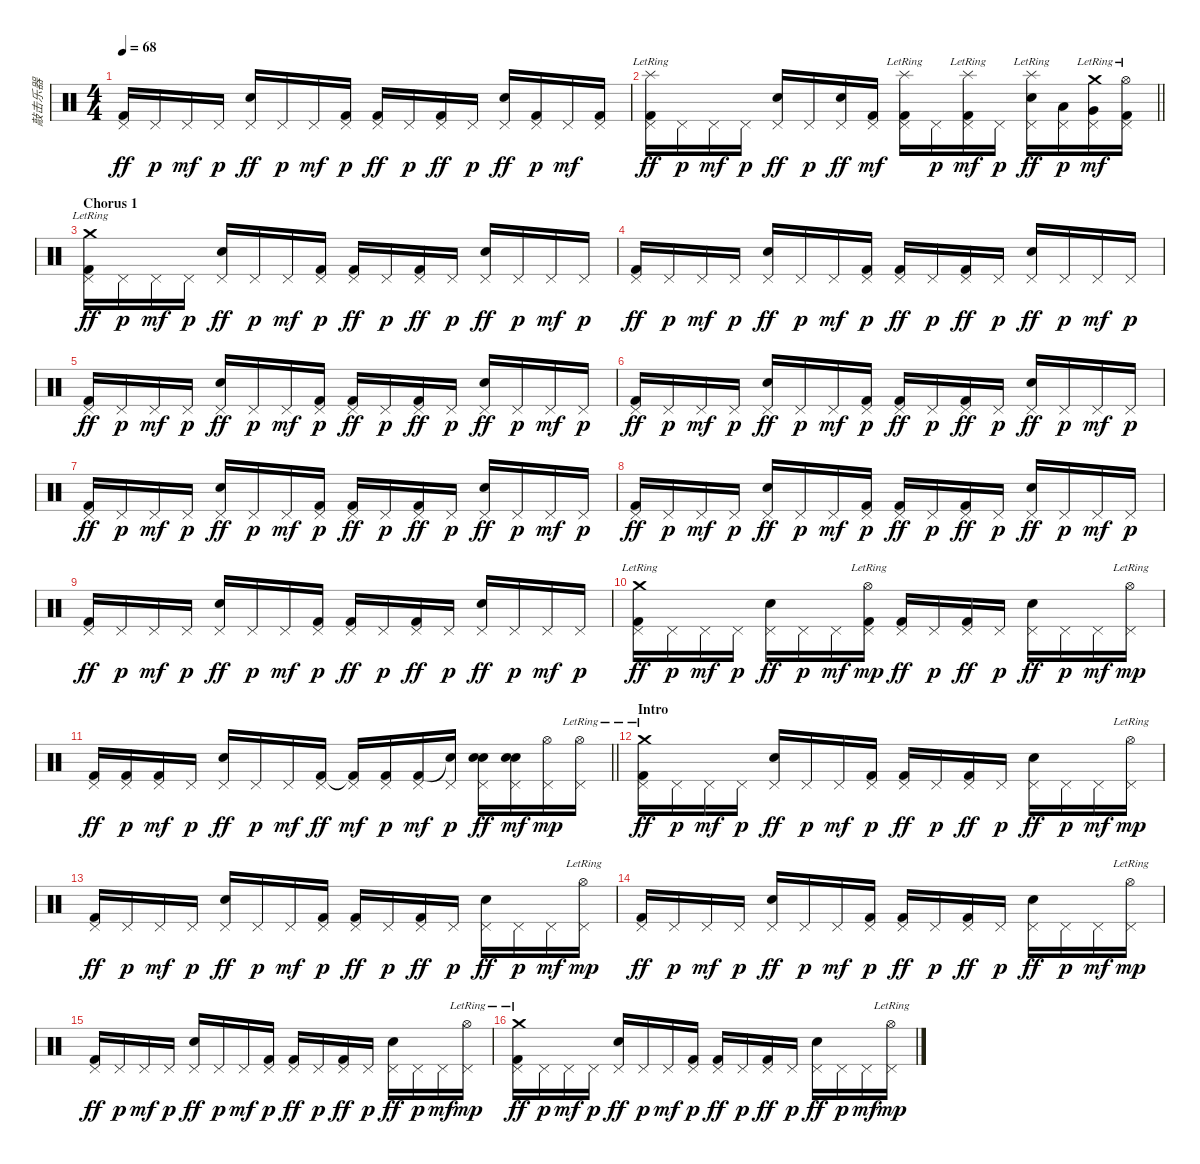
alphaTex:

\track ("敲击乐器" "敲击乐器") {instrument percussion}
\staff {score}
\articulation defaults
\ts (4 4)
\tempo 68
\clef neutral
\ks c
("Pedal Hi-Hat (hit)" "Kick (hit) 2").16{dy ff} "Pedal Hi-Hat (hit)".16{dy p} "Pedal Hi-Hat (hit)".16{dy mf} "Pedal Hi-Hat (hit)".16{dy p} ("Pedal Hi-Hat (hit)" "Electric Snare (hit)").16{dy ff} "Pedal Hi-Hat (hit)".16{dy p} "Pedal Hi-Hat (hit)".16{dy mf} ("Pedal Hi-Hat (hit)" "Kick (hit) 2").16{dy p} ("Pedal Hi-Hat (hit)" "Kick (hit) 2").16{dy ff} "Pedal Hi-Hat (hit)".16{dy p} ("Pedal Hi-Hat (hit)" "Kick (hit) 2").16{dy ff} "Pedal Hi-Hat (hit)".16{dy p} ("Pedal Hi-Hat (hit)" "Electric Snare (hit)").16{dy ff} ("Pedal Hi-Hat (hit)" "Kick (hit) 2").16{dy p} "Pedal Hi-Hat (hit)".16{dy mf} ("Pedal Hi-Hat (hit)" "Kick (hit) 2").16 |
\barLineRight lightlight
("Pedal Hi-Hat (hit)" "Splash (hit)"{lr} "Kick (hit) 2").16{dy ff} "Pedal Hi-Hat (hit)".16{dy p} "Pedal Hi-Hat (hit)".16{dy mf} "Pedal Hi-Hat (hit)".16{dy p} ("Pedal Hi-Hat (hit)" "Electric Snare (hit)").16{dy ff} "Pedal Hi-Hat (hit)".16{dy p} ("Pedal Hi-Hat (hit)" "Electric Snare (hit)").16{dy ff} ("Pedal Hi-Hat (hit)" "Kick (hit) 2").16{dy mf} ("Pedal Hi-Hat (hit)" "Splash (hit)"{lr} "Kick (hit) 2").16 "Pedal Hi-Hat (hit)".16{dy p} ("Pedal Hi-Hat (hit)" "Splash (hit)"{lr} "Kick (hit) 2").16{dy mf} "Pedal Hi-Hat (hit)".16{dy p} ("Pedal Hi-Hat (hit)" "Splash (hit)"{lr} "Electric Snare (hit)").16{dy ff} ("Pedal Hi-Hat (hit)" "Low Tom (hit)").16{dy p} ("Pedal Hi-Hat (hit)" "Crash medium (hit)"{lr} "Very Low Tom (hit)").16{dy mf} ("Pedal Hi-Hat (hit)" "Hi-Hat (open)"{lr} "Kick (hit) 2").16 |
\section ("" "Chorus 1")
("Pedal Hi-Hat (hit)" "Crash medium (hit)"{lr} "Kick (hit) 2").16{dy ff} "Pedal Hi-Hat (hit)".16{dy p} "Pedal Hi-Hat (hit)".16{dy mf} "Pedal Hi-Hat (hit)".16{dy p} ("Pedal Hi-Hat (hit)" "Electric Snare (hit)").16{dy ff} "Pedal Hi-Hat (hit)".16{dy p} "Pedal Hi-Hat (hit)".16{dy mf} ("Pedal Hi-Hat (hit)" "Kick (hit) 2").16{dy p} ("Pedal Hi-Hat (hit)" "Kick (hit) 2").16{dy ff} "Pedal Hi-Hat (hit)".16{dy p} ("Pedal Hi-Hat (hit)" "Kick (hit) 2").16{dy ff} "Pedal Hi-Hat (hit)".16{dy p} ("Pedal Hi-Hat (hit)" "Electric Snare (hit)").16{dy ff} "Pedal Hi-Hat (hit)".16{dy p} "Pedal Hi-Hat (hit)".16{dy mf} "Pedal Hi-Hat (hit)".16{dy p} |
("Pedal Hi-Hat (hit)" "Kick (hit) 2").16{dy ff} "Pedal Hi-Hat (hit)".16{dy p} "Pedal Hi-Hat (hit)".16{dy mf} "Pedal Hi-Hat (hit)".16{dy p} ("Pedal Hi-Hat (hit)" "Electric Snare (hit)").16{dy ff} "Pedal Hi-Hat (hit)".16{dy p} "Pedal Hi-Hat (hit)".16{dy mf} ("Pedal Hi-Hat (hit)" "Kick (hit) 2").16{dy p} ("Pedal Hi-Hat (hit)" "Kick (hit) 2").16{dy ff} "Pedal Hi-Hat (hit)".16{dy p} ("Pedal Hi-Hat (hit)" "Kick (hit) 2").16{dy ff} "Pedal Hi-Hat (hit)".16{dy p} ("Pedal Hi-Hat (hit)" "Electric Snare (hit)").16{dy ff} "Pedal Hi-Hat (hit)".16{dy p} "Pedal Hi-Hat (hit)".16{dy mf} "Pedal Hi-Hat (hit)".16{dy p} |
("Pedal Hi-Hat (hit)" "Kick (hit) 2").16{dy ff} "Pedal Hi-Hat (hit)".16{dy p} "Pedal Hi-Hat (hit)".16{dy mf} "Pedal Hi-Hat (hit)".16{dy p} ("Pedal Hi-Hat (hit)" "Electric Snare (hit)").16{dy ff} "Pedal Hi-Hat (hit)".16{dy p} "Pedal Hi-Hat (hit)".16{dy mf} ("Pedal Hi-Hat (hit)" "Kick (hit) 2").16{dy p} ("Pedal Hi-Hat (hit)" "Kick (hit) 2").16{dy ff} "Pedal Hi-Hat (hit)".16{dy p} ("Pedal Hi-Hat (hit)" "Kick (hit) 2").16{dy ff} "Pedal Hi-Hat (hit)".16{dy p} ("Pedal Hi-Hat (hit)" "Electric Snare (hit)").16{dy ff} "Pedal Hi-Hat (hit)".16{dy p} "Pedal Hi-Hat (hit)".16{dy mf} "Pedal Hi-Hat (hit)".16{dy p} |
("Pedal Hi-Hat (hit)" "Kick (hit) 2").16{dy ff} "Pedal Hi-Hat (hit)".16{dy p} "Pedal Hi-Hat (hit)".16{dy mf} "Pedal Hi-Hat (hit)".16{dy p} ("Pedal Hi-Hat (hit)" "Electric Snare (hit)").16{dy ff} "Pedal Hi-Hat (hit)".16{dy p} "Pedal Hi-Hat (hit)".16{dy mf} ("Pedal Hi-Hat (hit)" "Kick (hit) 2").16{dy p} ("Pedal Hi-Hat (hit)" "Kick (hit) 2").16{dy ff} "Pedal Hi-Hat (hit)".16{dy p} ("Pedal Hi-Hat (hit)" "Kick (hit) 2").16{dy ff} "Pedal Hi-Hat (hit)".16{dy p} ("Pedal Hi-Hat (hit)" "Electric Snare (hit)").16{dy ff} "Pedal Hi-Hat (hit)".16{dy p} "Pedal Hi-Hat (hit)".16{dy mf} "Pedal Hi-Hat (hit)".16{dy p} |
("Pedal Hi-Hat (hit)" "Kick (hit) 2").16{dy ff} "Pedal Hi-Hat (hit)".16{dy p} "Pedal Hi-Hat (hit)".16{dy mf} "Pedal Hi-Hat (hit)".16{dy p} ("Pedal Hi-Hat (hit)" "Electric Snare (hit)").16{dy ff} "Pedal Hi-Hat (hit)".16{dy p} "Pedal Hi-Hat (hit)".16{dy mf} ("Pedal Hi-Hat (hit)" "Kick (hit) 2").16{dy p} ("Pedal Hi-Hat (hit)" "Kick (hit) 2").16{dy ff} "Pedal Hi-Hat (hit)".16{dy p} ("Pedal Hi-Hat (hit)" "Kick (hit) 2").16{dy ff} "Pedal Hi-Hat (hit)".16{dy p} ("Pedal Hi-Hat (hit)" "Electric Snare (hit)").16{dy ff} "Pedal Hi-Hat (hit)".16{dy p} "Pedal Hi-Hat (hit)".16{dy mf} "Pedal Hi-Hat (hit)".16{dy p} |
("Pedal Hi-Hat (hit)" "Kick (hit) 2").16{dy ff} "Pedal Hi-Hat (hit)".16{dy p} "Pedal Hi-Hat (hit)".16{dy mf} "Pedal Hi-Hat (hit)".16{dy p} ("Pedal Hi-Hat (hit)" "Electric Snare (hit)").16{dy ff} "Pedal Hi-Hat (hit)".16{dy p} "Pedal Hi-Hat (hit)".16{dy mf} ("Pedal Hi-Hat (hit)" "Kick (hit) 2").16{dy p} ("Pedal Hi-Hat (hit)" "Kick (hit) 2").16{dy ff} "Pedal Hi-Hat (hit)".16{dy p} ("Pedal Hi-Hat (hit)" "Kick (hit) 2").16{dy ff} "Pedal Hi-Hat (hit)".16{dy p} ("Pedal Hi-Hat (hit)" "Electric Snare (hit)").16{dy ff} "Pedal Hi-Hat (hit)".16{dy p} "Pedal Hi-Hat (hit)".16{dy mf} "Pedal Hi-Hat (hit)".16{dy p} |
("Pedal Hi-Hat (hit)" "Kick (hit) 2").16{dy ff} "Pedal Hi-Hat (hit)".16{dy p} "Pedal Hi-Hat (hit)".16{dy mf} "Pedal Hi-Hat (hit)".16{dy p} ("Pedal Hi-Hat (hit)" "Electric Snare (hit)").16{dy ff} "Pedal Hi-Hat (hit)".16{dy p} "Pedal Hi-Hat (hit)".16{dy mf} ("Pedal Hi-Hat (hit)" "Kick (hit) 2").16{dy p} ("Pedal Hi-Hat (hit)" "Kick (hit) 2").16{dy ff} "Pedal Hi-Hat (hit)".16{dy p} ("Pedal Hi-Hat (hit)" "Kick (hit) 2").16{dy ff} "Pedal Hi-Hat (hit)".16{dy p} ("Pedal Hi-Hat (hit)" "Electric Snare (hit)").16{dy ff} "Pedal Hi-Hat (hit)".16{dy p} "Pedal Hi-Hat (hit)".16{dy mf} "Pedal Hi-Hat (hit)".16{dy p} |
("Pedal Hi-Hat (hit)" "Crash medium (hit)"{lr} "Kick (hit) 2").16{dy ff} "Pedal Hi-Hat (hit)".16{dy p} "Pedal Hi-Hat (hit)".16{dy mf} "Pedal Hi-Hat (hit)".16{dy p} ("Pedal Hi-Hat (hit)" "Electric Snare (hit)").16{dy ff} "Pedal Hi-Hat (hit)".16{dy p} "Pedal Hi-Hat (hit)".16{dy mf} ("Pedal Hi-Hat (hit)" "Hi-Hat (open)"{lr} "Kick (hit) 2").16{dy mp} ("Pedal Hi-Hat (hit)" "Kick (hit) 2").16{dy ff} "Pedal Hi-Hat (hit)".16{dy p} ("Pedal Hi-Hat (hit)" "Kick (hit) 2").16{dy ff} "Pedal Hi-Hat (hit)".16{dy p} ("Pedal Hi-Hat (hit)" "Electric Snare (hit)").16{dy ff} "Pedal Hi-Hat (hit)".16{dy p} "Pedal Hi-Hat (hit)".16{dy mf} ("Pedal Hi-Hat (hit)" "Hi-Hat (open)"{lr}).16{dy mp} |
\barLineRight lightlight
("Pedal Hi-Hat (hit)" "Kick (hit) 2").16{dy ff} ("Pedal Hi-Hat (hit)" "Kick (hit) 2").16{dy p} ("Pedal Hi-Hat (hit)" "Kick (hit) 2").16{dy mf} "Pedal Hi-Hat (hit)".16{dy p} ("Pedal Hi-Hat (hit)" "Electric Snare (hit)").16{dy ff} "Pedal Hi-Hat (hit)".16{dy p} "Pedal Hi-Hat (hit)".16{dy mf} ("Pedal Hi-Hat (hit)" "Kick (hit) 2").16{dy ff} ("Pedal Hi-Hat (hit)" "Kick (hit) 2"{t}).16{dy mf} ("Pedal Hi-Hat (hit)" "Kick (hit) 2").16{dy p} ("Pedal Hi-Hat (hit)" "Kick (hit) 2").16{dy mf} ("Pedal Hi-Hat (hit)" "Snare (hit)"{t}).16{dy p} ("Pedal Hi-Hat (hit)" "Electric Snare (hit)" "Electric Snare (hit)").16{bd 480 dy ff} ("Pedal Hi-Hat (hit)" "Electric Snare (hit)" "Electric Snare (hit)").16{bd 480 dy mf} ("Pedal Hi-Hat (hit)" "Hi-Hat (open)").16{dy mp} ("Pedal Hi-Hat (hit)" "Hi-Hat (open)"{lr}).16 |
\section ("" "Intro")
("Pedal Hi-Hat (hit)" "Crash medium (hit)"{lr} "Kick (hit) 2").16{dy ff} "Pedal Hi-Hat (hit)".16{dy p} "Pedal Hi-Hat (hit)".16{dy mf} "Pedal Hi-Hat (hit)".16{dy p} ("Pedal Hi-Hat (hit)" "Electric Snare (hit)").16{dy ff} "Pedal Hi-Hat (hit)".16{dy p} "Pedal Hi-Hat (hit)".16{dy mf} ("Pedal Hi-Hat (hit)" "Kick (hit) 2").16{dy p} ("Pedal Hi-Hat (hit)" "Kick (hit) 2").16{dy ff} "Pedal Hi-Hat (hit)".16{dy p} ("Pedal Hi-Hat (hit)" "Kick (hit) 2").16{dy ff} "Pedal Hi-Hat (hit)".16{dy p} ("Pedal Hi-Hat (hit)" "Electric Snare (hit)").16{dy ff} "Pedal Hi-Hat (hit)".16{dy p} "Pedal Hi-Hat (hit)".16{dy mf} ("Pedal Hi-Hat (hit)" "Hi-Hat (open)"{lr}).16{dy mp} |
("Pedal Hi-Hat (hit)" "Kick (hit) 2").16{dy ff} "Pedal Hi-Hat (hit)".16{dy p} "Pedal Hi-Hat (hit)".16{dy mf} "Pedal Hi-Hat (hit)".16{dy p} ("Pedal Hi-Hat (hit)" "Electric Snare (hit)").16{dy ff} "Pedal Hi-Hat (hit)".16{dy p} "Pedal Hi-Hat (hit)".16{dy mf} ("Pedal Hi-Hat (hit)" "Kick (hit) 2").16{dy p} ("Pedal Hi-Hat (hit)" "Kick (hit) 2").16{dy ff} "Pedal Hi-Hat (hit)".16{dy p} ("Pedal Hi-Hat (hit)" "Kick (hit) 2").16{dy ff} "Pedal Hi-Hat (hit)".16{dy p} ("Pedal Hi-Hat (hit)" "Electric Snare (hit)").16{dy ff} "Pedal Hi-Hat (hit)".16{dy p} "Pedal Hi-Hat (hit)".16{dy mf} ("Pedal Hi-Hat (hit)" "Hi-Hat (open)"{lr}).16{dy mp} |
("Pedal Hi-Hat (hit)" "Kick (hit) 2").16{dy ff} "Pedal Hi-Hat (hit)".16{dy p} "Pedal Hi-Hat (hit)".16{dy mf} "Pedal Hi-Hat (hit)".16{dy p} ("Pedal Hi-Hat (hit)" "Electric Snare (hit)").16{dy ff} "Pedal Hi-Hat (hit)".16{dy p} "Pedal Hi-Hat (hit)".16{dy mf} ("Pedal Hi-Hat (hit)" "Kick (hit) 2").16{dy p} ("Pedal Hi-Hat (hit)" "Kick (hit) 2").16{dy ff} "Pedal Hi-Hat (hit)".16{dy p} ("Pedal Hi-Hat (hit)" "Kick (hit) 2").16{dy ff} "Pedal Hi-Hat (hit)".16{dy p} ("Pedal Hi-Hat (hit)" "Electric Snare (hit)").16{dy ff} "Pedal Hi-Hat (hit)".16{dy p} "Pedal Hi-Hat (hit)".16{dy mf} ("Pedal Hi-Hat (hit)" "Hi-Hat (open)"{lr}).16{dy mp} |
("Pedal Hi-Hat (hit)" "Kick (hit) 2").16{dy ff} "Pedal Hi-Hat (hit)".16{dy p} "Pedal Hi-Hat (hit)".16{dy mf} "Pedal Hi-Hat (hit)".16{dy p} ("Pedal Hi-Hat (hit)" "Electric Snare (hit)").16{dy ff} "Pedal Hi-Hat (hit)".16{dy p} "Pedal Hi-Hat (hit)".16{dy mf} ("Pedal Hi-Hat (hit)" "Kick (hit) 2").16{dy p} ("Pedal Hi-Hat (hit)" "Kick (hit) 2").16{dy ff} "Pedal Hi-Hat (hit)".16{dy p} ("Pedal Hi-Hat (hit)" "Kick (hit) 2").16{dy ff} "Pedal Hi-Hat (hit)".16{dy p} ("Pedal Hi-Hat (hit)" "Electric Snare (hit)").16{dy ff} "Pedal Hi-Hat (hit)".16{dy p} "Pedal Hi-Hat (hit)".16{dy mf} ("Pedal Hi-Hat (hit)" "Hi-Hat (open)"{lr}).16{dy mp} |
("Pedal Hi-Hat (hit)" "Crash medium (hit)"{lr} "Kick (hit) 2").16{dy ff} "Pedal Hi-Hat (hit)".16{dy p} "Pedal Hi-Hat (hit)".16{dy mf} "Pedal Hi-Hat (hit)".16{dy p} ("Pedal Hi-Hat (hit)" "Electric Snare (hit)").16{dy ff} "Pedal Hi-Hat (hit)".16{dy p} "Pedal Hi-Hat (hit)".16{dy mf} ("Pedal Hi-Hat (hit)" "Kick (hit) 2").16{dy p} ("Pedal Hi-Hat (hit)" "Kick (hit) 2").16{dy ff} "Pedal Hi-Hat (hit)".16{dy p} ("Pedal Hi-Hat (hit)" "Kick (hit) 2").16{dy ff} "Pedal Hi-Hat (hit)".16{dy p} ("Pedal Hi-Hat (hit)" "Electric Snare (hit)").16{dy ff} "Pedal Hi-Hat (hit)".16{dy p} "Pedal Hi-Hat (hit)".16{dy mf} ("Pedal Hi-Hat (hit)" "Hi-Hat (open)"{lr}).16{dy mp}
